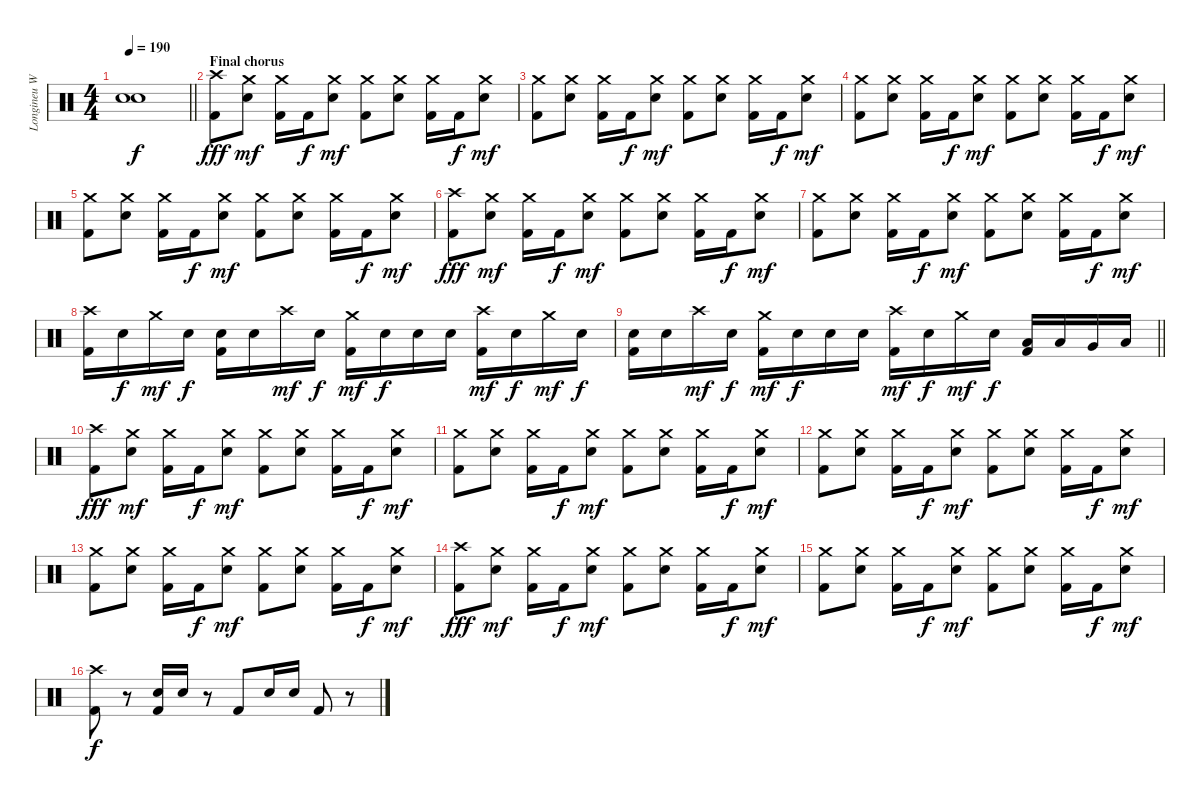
\track ("Longineu W. Parsons III" "Longineu W") {instrument percussion}
\staff {score}
\articulation defaults
\ts (4 4)
\tempo 190
\clef neutral
\barLineRight lightlight
\ks c
("Snare (hit)"{t} "Snare (hit)"{t}).1{dy f} |
\section ("" "Final chorus")
("Crash high (hit)" "Kick (hit) 2").8{dy fff} ("Crash medium (hit)" "Electric Snare (hit)").8{dy mf} ("Crash medium (hit)" "Kick (hit) 2").16 "Kick (hit) 2".16{dy f} ("Crash medium (hit)" "Electric Snare (hit)").8{dy mf} ("Crash medium (hit)" "Kick (hit) 2").8 ("Crash medium (hit)" "Electric Snare (hit)").8 ("Crash medium (hit)" "Kick (hit) 2").16 "Kick (hit) 2".16{dy f} ("Crash medium (hit)" "Electric Snare (hit)").8{dy mf} |
("Crash medium (hit)" "Kick (hit) 2").8 ("Crash medium (hit)" "Electric Snare (hit)").8 ("Crash medium (hit)" "Kick (hit) 2").16 "Kick (hit) 2".16{dy f} ("Crash medium (hit)" "Electric Snare (hit)").8{dy mf} ("Crash medium (hit)" "Kick (hit) 2").8 ("Crash medium (hit)" "Electric Snare (hit)").8 ("Crash medium (hit)" "Kick (hit) 2").16 "Kick (hit) 2".16{dy f} ("Crash medium (hit)" "Electric Snare (hit)").8{dy mf} |
("Crash medium (hit)" "Kick (hit) 2").8 ("Crash medium (hit)" "Electric Snare (hit)").8 ("Crash medium (hit)" "Kick (hit) 2").16 "Kick (hit) 2".16{dy f} ("Crash medium (hit)" "Electric Snare (hit)").8{dy mf} ("Crash medium (hit)" "Kick (hit) 2").8 ("Crash medium (hit)" "Electric Snare (hit)").8 ("Crash medium (hit)" "Kick (hit) 2").16 "Kick (hit) 2".16{dy f} ("Crash medium (hit)" "Electric Snare (hit)").8{dy mf} |
("Crash medium (hit)" "Kick (hit) 2").8 ("Crash medium (hit)" "Electric Snare (hit)").8 ("Crash medium (hit)" "Kick (hit) 2").16 "Kick (hit) 2".16{dy f} ("Crash medium (hit)" "Electric Snare (hit)").8{dy mf} ("Crash medium (hit)" "Kick (hit) 2").8 ("Crash medium (hit)" "Electric Snare (hit)").8 ("Crash medium (hit)" "Kick (hit) 2").16 "Kick (hit) 2".16{dy f} ("Crash medium (hit)" "Electric Snare (hit)").8{dy mf} |
("Crash high (hit)" "Kick (hit) 2").8{dy fff} ("Crash medium (hit)" "Electric Snare (hit)").8{dy mf} ("Crash medium (hit)" "Kick (hit) 2").16 "Kick (hit) 2".16{dy f} ("Crash medium (hit)" "Electric Snare (hit)").8{dy mf} ("Crash medium (hit)" "Kick (hit) 2").8 ("Crash medium (hit)" "Electric Snare (hit)").8 ("Crash medium (hit)" "Kick (hit) 2").16 "Kick (hit) 2".16{dy f} ("Crash medium (hit)" "Electric Snare (hit)").8{dy mf} |
("Crash medium (hit)" "Kick (hit) 2").8 ("Crash medium (hit)" "Electric Snare (hit)").8 ("Crash medium (hit)" "Kick (hit) 2").16 "Kick (hit) 2".16{dy f} ("Crash medium (hit)" "Electric Snare (hit)").8{dy mf} ("Crash medium (hit)" "Kick (hit) 2").8 ("Crash medium (hit)" "Electric Snare (hit)").8 ("Crash medium (hit)" "Kick (hit) 2").16 "Kick (hit) 2".16{dy f} ("Crash medium (hit)" "Electric Snare (hit)").8{dy mf} |
("Crash high (hit)" "Kick (hit) 2").16 "Electric Snare (hit)".16{dy f} "Crash medium (hit)".16{dy mf} "Electric Snare (hit)".16{dy f} ("Electric Snare (hit)" "Kick (hit) 2").16 "Electric Snare (hit)".16 "Crash high (hit)".16{dy mf} "Electric Snare (hit)".16{dy f} ("Crash medium (hit)" "Kick (hit) 2").16{dy mf} "Electric Snare (hit)".16{dy f} "Electric Snare (hit)".16 "Electric Snare (hit)".16 ("Crash high (hit)" "Kick (hit) 2").16{dy mf} "Electric Snare (hit)".16{dy f} "Crash medium (hit)".16{dy mf} "Electric Snare (hit)".16{dy f} |
\barLineRight lightlight
("Electric Snare (hit)" "Kick (hit) 2").16 "Electric Snare (hit)".16 "Crash high (hit)".16{dy mf} "Electric Snare (hit)".16{dy f} ("Crash medium (hit)" "Kick (hit) 2").16{dy mf} "Electric Snare (hit)".16{dy f} "Electric Snare (hit)".16 "Electric Snare (hit)".16 ("Crash high (hit)" "Kick (hit) 2").16{dy mf} "Electric Snare (hit)".16{dy f} "Crash medium (hit)".16{dy mf} "Electric Snare (hit)".16{dy f} ("Low Tom (hit)" "Kick (hit) 2").16 "Low Tom (hit)".16 "Very Low Tom (hit)".16 "Low Floor Tom (hit)".16 |
("Crash high (hit)" "Kick (hit) 2").8{dy fff} ("Crash medium (hit)" "Electric Snare (hit)").8{dy mf} ("Crash medium (hit)" "Kick (hit) 2").16 "Kick (hit) 2".16{dy f} ("Crash medium (hit)" "Electric Snare (hit)").8{dy mf} ("Crash medium (hit)" "Kick (hit) 2").8 ("Crash medium (hit)" "Electric Snare (hit)").8 ("Crash medium (hit)" "Kick (hit) 2").16 "Kick (hit) 2".16{dy f} ("Crash medium (hit)" "Electric Snare (hit)").8{dy mf} |
("Crash medium (hit)" "Kick (hit) 2").8 ("Crash medium (hit)" "Electric Snare (hit)").8 ("Crash medium (hit)" "Kick (hit) 2").16 "Kick (hit) 2".16{dy f} ("Crash medium (hit)" "Electric Snare (hit)").8{dy mf} ("Crash medium (hit)" "Kick (hit) 2").8 ("Crash medium (hit)" "Electric Snare (hit)").8 ("Crash medium (hit)" "Kick (hit) 2").16 "Kick (hit) 2".16{dy f} ("Crash medium (hit)" "Electric Snare (hit)").8{dy mf} |
("Crash medium (hit)" "Kick (hit) 2").8 ("Crash medium (hit)" "Electric Snare (hit)").8 ("Crash medium (hit)" "Kick (hit) 2").16 "Kick (hit) 2".16{dy f} ("Crash medium (hit)" "Electric Snare (hit)").8{dy mf} ("Crash medium (hit)" "Kick (hit) 2").8 ("Crash medium (hit)" "Electric Snare (hit)").8 ("Crash medium (hit)" "Kick (hit) 2").16 "Kick (hit) 2".16{dy f} ("Crash medium (hit)" "Electric Snare (hit)").8{dy mf} |
("Crash medium (hit)" "Kick (hit) 2").8 ("Crash medium (hit)" "Electric Snare (hit)").8 ("Crash medium (hit)" "Kick (hit) 2").16 "Kick (hit) 2".16{dy f} ("Crash medium (hit)" "Electric Snare (hit)").8{dy mf} ("Crash medium (hit)" "Kick (hit) 2").8 ("Crash medium (hit)" "Electric Snare (hit)").8 ("Crash medium (hit)" "Kick (hit) 2").16 "Kick (hit) 2".16{dy f} ("Crash medium (hit)" "Electric Snare (hit)").8{dy mf} |
("Crash high (hit)" "Kick (hit) 2").8{dy fff} ("Crash medium (hit)" "Electric Snare (hit)").8{dy mf} ("Crash medium (hit)" "Kick (hit) 2").16 "Kick (hit) 2".16{dy f} ("Crash medium (hit)" "Electric Snare (hit)").8{dy mf} ("Crash medium (hit)" "Kick (hit) 2").8 ("Crash medium (hit)" "Electric Snare (hit)").8 ("Crash medium (hit)" "Kick (hit) 2").16 "Kick (hit) 2".16{dy f} ("Crash medium (hit)" "Electric Snare (hit)").8{dy mf} |
("Crash medium (hit)" "Kick (hit) 2").8 ("Crash medium (hit)" "Electric Snare (hit)").8 ("Crash medium (hit)" "Kick (hit) 2").16 "Kick (hit) 2".16{dy f} ("Crash medium (hit)" "Electric Snare (hit)").8{dy mf} ("Crash medium (hit)" "Kick (hit) 2").8 ("Crash medium (hit)" "Electric Snare (hit)").8 ("Crash medium (hit)" "Kick (hit) 2").16 "Kick (hit) 2".16{dy f} ("Crash medium (hit)" "Electric Snare (hit)").8{dy mf} |
("Crash high (hit)" "Kick (hit) 2").8{dy f} r.8 ("Electric Snare (hit)" "Kick (hit) 2").16 "Electric Snare (hit)".16 r.8 "Kick (hit) 2".8 "Electric Snare (hit)".16 "Electric Snare (hit)".16 "Kick (hit) 2".8 r.8
